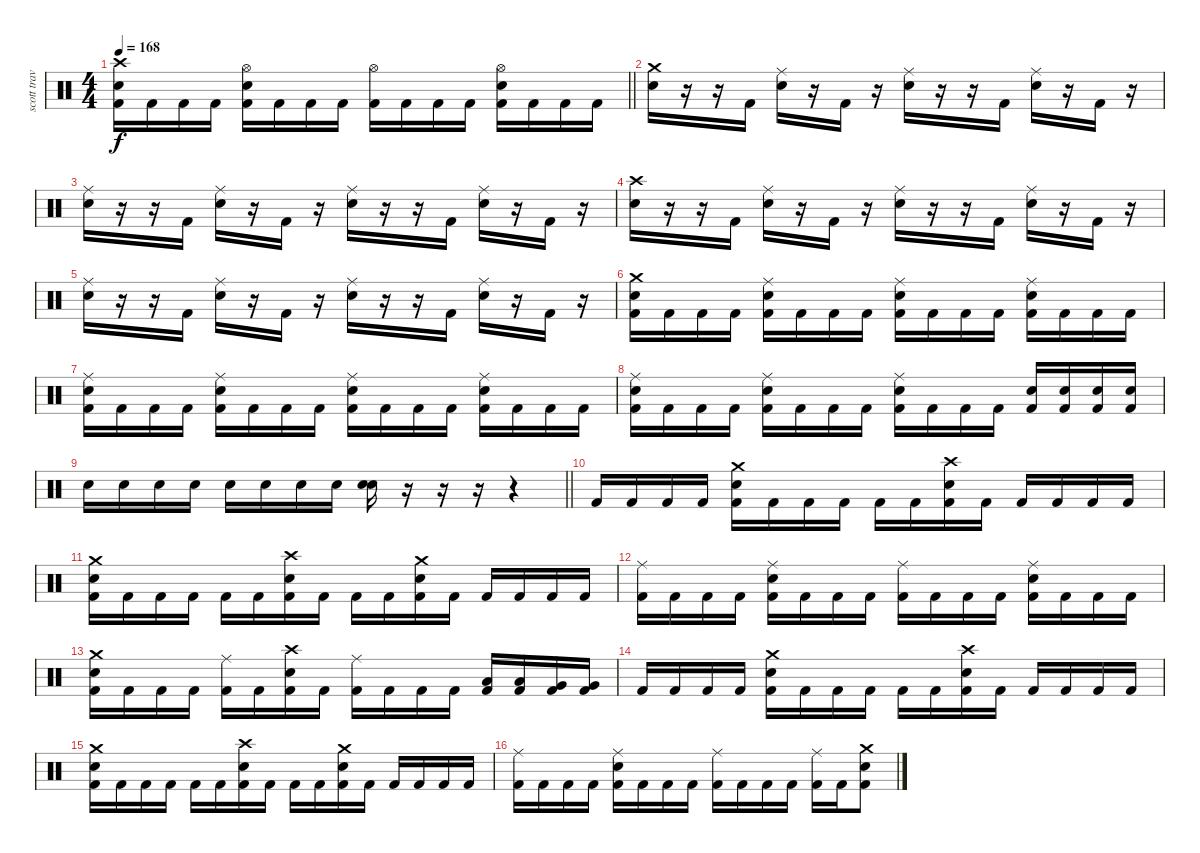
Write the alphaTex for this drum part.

\track ("scott travis" "scott trav") {instrument percussion}
\staff {score}
\articulation defaults
\ts (4 4)
\tempo 168
\clef neutral
\barLineRight lightlight
\ks c
("Crash high (hit)" "Snare (hit) 2" "Kick (hit) 2").16{dy f} "Kick (hit) 2".16 "Kick (hit) 2".16 "Kick (hit) 2".16 ("Hi-Hat (open)" "Snare (hit) 2" "Kick (hit) 2").16 "Kick (hit) 2".16 "Kick (hit) 2".16 "Kick (hit) 2".16 ("Hi-Hat (open)" "Kick (hit) 2").16 "Kick (hit) 2".16 "Kick (hit) 2".16 "Kick (hit) 2".16 ("Hi-Hat (open)" "Snare (hit) 2" "Kick (hit) 2").16 "Kick (hit) 2".16 "Kick (hit) 2".16 "Kick (hit) 2".16 |
("Crash medium (hit)" "Snare (hit) 2").16 r.16 r.16 "Kick (hit) 2".16 ("Ride (middle)" "Snare (hit) 2").16 r.16 "Kick (hit) 2".16 r.16 ("Ride (middle)" "Snare (hit) 2").16 r.16 r.16 "Kick (hit) 2".16 ("Ride (middle)" "Snare (hit) 2").16 r.16 "Kick (hit) 2".16 r.16 |
("Ride (middle)" "Snare (hit) 2").16 r.16 r.16 "Kick (hit) 2".16 ("Ride (middle)" "Snare (hit) 2").16 r.16 "Kick (hit) 2".16 r.16 ("Ride (middle)" "Snare (hit) 2").16 r.16 r.16 "Kick (hit) 2".16 ("Ride (middle)" "Snare (hit) 2").16 r.16 "Kick (hit) 2".16 r.16 |
("Crash high (hit)" "Snare (hit) 2").16 r.16 r.16 "Kick (hit) 2".16 ("Ride (middle)" "Snare (hit) 2").16 r.16 "Kick (hit) 2".16 r.16 ("Ride (middle)" "Snare (hit) 2").16 r.16 r.16 "Kick (hit) 2".16 ("Ride (middle)" "Snare (hit) 2").16 r.16 "Kick (hit) 2".16 r.16 |
("Ride (middle)" "Snare (hit) 2").16 r.16 r.16 "Kick (hit) 2".16 ("Ride (middle)" "Snare (hit) 2").16 r.16 "Kick (hit) 2".16 r.16 ("Ride (middle)" "Snare (hit) 2").16 r.16 r.16 "Kick (hit) 2".16 ("Ride (middle)" "Snare (hit) 2").16 r.16 "Kick (hit) 2".16 r.16 |
("Crash medium (hit)" "Snare (hit) 2" "Kick (hit) 2").16 "Kick (hit) 2".16 "Kick (hit) 2".16 "Kick (hit) 2".16 ("Ride (middle)" "Snare (hit) 2" "Kick (hit) 2").16 "Kick (hit) 2".16 "Kick (hit) 2".16 "Kick (hit) 2".16 ("Ride (middle)" "Snare (hit) 2" "Kick (hit) 2").16 "Kick (hit) 2".16 "Kick (hit) 2".16 "Kick (hit) 2".16 ("Ride (middle)" "Snare (hit) 2" "Kick (hit) 2").16 "Kick (hit) 2".16 "Kick (hit) 2".16 "Kick (hit) 2".16 |
("Ride (middle)" "Snare (hit) 2" "Kick (hit) 2").16 "Kick (hit) 2".16 "Kick (hit) 2".16 "Kick (hit) 2".16 ("Ride (middle)" "Snare (hit) 2" "Kick (hit) 2").16 "Kick (hit) 2".16 "Kick (hit) 2".16 "Kick (hit) 2".16 ("Ride (middle)" "Snare (hit) 2" "Kick (hit) 2").16 "Kick (hit) 2".16 "Kick (hit) 2".16 "Kick (hit) 2".16 ("Ride (middle)" "Snare (hit) 2" "Kick (hit) 2").16 "Kick (hit) 2".16 "Kick (hit) 2".16 "Kick (hit) 2".16 |
("Ride (middle)" "Snare (hit) 2" "Kick (hit) 2").16 "Kick (hit) 2".16 "Kick (hit) 2".16 "Kick (hit) 2".16 ("Ride (middle)" "Snare (hit) 2" "Kick (hit) 2").16 "Kick (hit) 2".16 "Kick (hit) 2".16 "Kick (hit) 2".16 ("Ride (middle)" "Snare (hit) 2" "Kick (hit) 2").16 "Kick (hit) 2".16 "Kick (hit) 2".16 "Kick (hit) 2".16 ("Snare (hit) 2" "Kick (hit) 2").16 ("Snare (hit) 2" "Kick (hit) 2").16 ("Snare (hit) 2" "Kick (hit) 2").16 ("Snare (hit) 2" "Kick (hit) 2").16 |
\barLineRight lightlight "Snare (hit) 2".16 "Snare (hit) 2".16 "Snare (hit) 2".16 "Snare (hit) 2".16 "Snare (hit) 2".16 "Snare (hit) 2".16 "Snare (hit) 2".16 "Snare (hit) 2".16
("Snare (hit) 2" "Snare (hit) 2").16 r.16 r.16 r.16 r.4 |
"Kick (hit) 2".16 "Kick (hit) 2".16 "Kick (hit) 2".16 "Kick (hit) 2".16 ("Crash medium (hit)" "Snare (hit) 2" "Kick (hit) 2").16 "Kick (hit) 2".16 "Kick (hit) 2".16 "Kick (hit) 2".16 "Kick (hit) 2".16 "Kick (hit) 2".16 ("Crash high (hit)" "Snare (hit) 2" "Kick (hit) 2").16 "Kick (hit) 2".16 "Kick (hit) 2".16 "Kick (hit) 2".16 "Kick (hit) 2".16 "Kick (hit) 2".16 |
("Crash medium (hit)" "Snare (hit) 2" "Kick (hit) 2").16 "Kick (hit) 2".16 "Kick (hit) 2".16 "Kick (hit) 2".16 "Kick (hit) 2".16 "Kick (hit) 2".16 ("Crash high (hit)" "Snare (hit) 2" "Kick (hit) 2").16 "Kick (hit) 2".16 "Kick (hit) 2".16 "Kick (hit) 2".16 ("Crash medium (hit)" "Snare (hit) 2" "Kick (hit) 2").16 "Kick (hit) 2".16 "Kick (hit) 2".16 "Kick (hit) 2".16 "Kick (hit) 2".16 "Kick (hit) 2".16 |
("Ride (middle)" "Kick (hit) 2").16 "Kick (hit) 2".16 "Kick (hit) 2".16 "Kick (hit) 2".16 ("Ride (middle)" "Snare (hit) 2" "Kick (hit) 2").16 "Kick (hit) 2".16 "Kick (hit) 2".16 "Kick (hit) 2".16 ("Ride (middle)" "Kick (hit) 2").16 "Kick (hit) 2".16 "Kick (hit) 2".16 "Kick (hit) 2".16 ("Ride (middle)" "Snare (hit) 2" "Kick (hit) 2").16 "Kick (hit) 2".16 "Kick (hit) 2".16 "Kick (hit) 2".16 |
("Crash medium (hit)" "Snare (hit) 2" "Kick (hit) 2").16 "Kick (hit) 2".16 "Kick (hit) 2".16 "Kick (hit) 2".16 ("Ride (middle)" "Kick (hit) 2").16 "Kick (hit) 2".16 ("Crash high (hit)" "Snare (hit) 2" "Kick (hit) 2").16 "Kick (hit) 2".16 ("Ride (middle)" "Kick (hit) 2").16 "Kick (hit) 2".16 "Kick (hit) 2".16 "Kick (hit) 2".16 ("Low Tom (hit)" "Kick (hit) 2").16 ("Low Tom (hit)" "Kick (hit) 2").16 ("Very Low Tom (hit)" "Kick (hit) 2").16 ("Very Low Tom (hit)" "Kick (hit) 2").16 |
"Kick (hit) 2".16 "Kick (hit) 2".16 "Kick (hit) 2".16 "Kick (hit) 2".16 ("Crash medium (hit)" "Snare (hit) 2" "Kick (hit) 2").16 "Kick (hit) 2".16 "Kick (hit) 2".16 "Kick (hit) 2".16 "Kick (hit) 2".16 "Kick (hit) 2".16 ("Crash high (hit)" "Snare (hit) 2" "Kick (hit) 2").16 "Kick (hit) 2".16 "Kick (hit) 2".16 "Kick (hit) 2".16 "Kick (hit) 2".16 "Kick (hit) 2".16 |
("Crash medium (hit)" "Snare (hit) 2" "Kick (hit) 2").16 "Kick (hit) 2".16 "Kick (hit) 2".16 "Kick (hit) 2".16 "Kick (hit) 2".16 "Kick (hit) 2".16 ("Crash high (hit)" "Snare (hit) 2" "Kick (hit) 2").16 "Kick (hit) 2".16 "Kick (hit) 2".16 "Kick (hit) 2".16 ("Crash medium (hit)" "Snare (hit) 2" "Kick (hit) 2").16 "Kick (hit) 2".16 "Kick (hit) 2".16 "Kick (hit) 2".16 "Kick (hit) 2".16 "Kick (hit) 2".16 |
("Ride (middle)" "Kick (hit) 2").16 "Kick (hit) 2".16 "Kick (hit) 2".16 "Kick (hit) 2".16 ("Ride (middle)" "Snare (hit) 2" "Kick (hit) 2").16 "Kick (hit) 2".16 "Kick (hit) 2".16 "Kick (hit) 2".16 ("Ride (middle)" "Kick (hit) 2").16 "Kick (hit) 2".16 "Kick (hit) 2".16 "Kick (hit) 2".16 ("Ride (middle)" "Kick (hit) 2").16 "Kick (hit) 2".16 ("Crash medium (hit)" "Snare (hit) 2" "Kick (hit) 2").8
